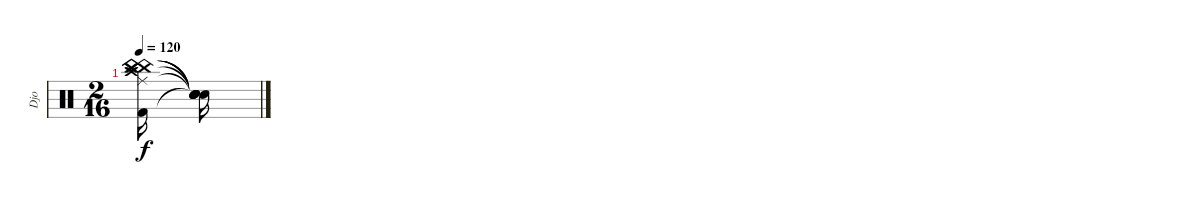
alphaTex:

\track ("Djo" "Djo") {instrument percussion}
\staff {score}
\articulation defaults
\ts (2 16)
\tempo 120
\clef neutral
\ks c
("China (hit)" "China (hit)" "China (hit)" "Crash high (hit)" "Ride (middle)" "Kick (hit) 2").16{dy f} ("Snare (hit)"{t} "Snare (hit)"{t} "Snare (hit)"{t} "Snare (hit)"{t} "Snare (hit)"{t} "Snare (hit)"{t}).16
